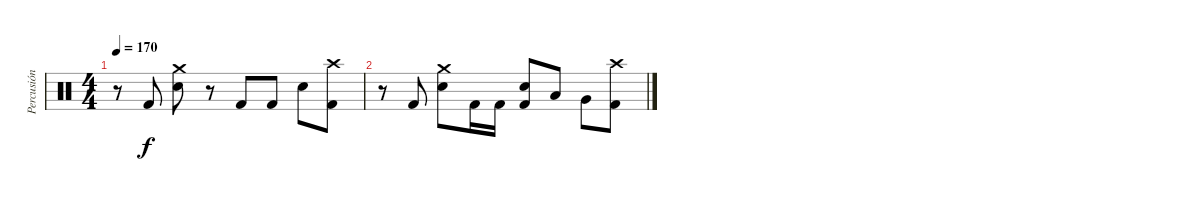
\track ("Percusión" "Percusión") {instrument percussion}
\staff {score}
\articulation defaults
\ts (4 4)
\tempo 170
\clef neutral
\ks c
r.8{dy f} "Kick (hit) 2".8 ("Snare (hit) 2" "Crash medium (hit)").8 r.8 "Kick (hit) 2".8 "Kick (hit) 2".8 "Snare (hit) 2".8 ("Kick (hit) 2" "Crash high (hit)").8 |
r.8 "Kick (hit) 2".8 ("Snare (hit) 2" "Crash medium (hit)").8 "Kick (hit) 2".16 "Kick (hit) 2".16 ("Kick (hit) 2" "Snare (hit) 2").8 "Low Tom (hit)".8 "Very Low Tom (hit)".8 ("Kick (hit) 2" "Crash high (hit)").8
